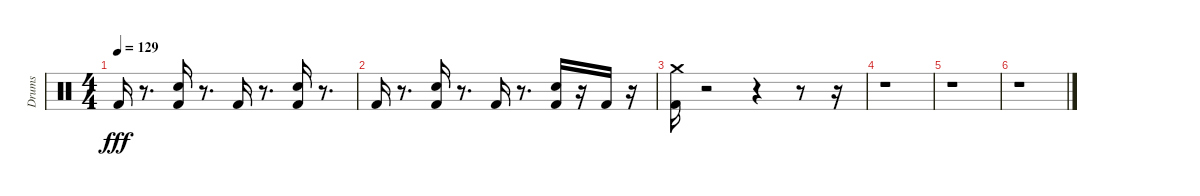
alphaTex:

\track ("Drums" "Drums") {instrument percussion}
\staff {score}
\articulation defaults
\ts (4 4)
\tempo 129
\clef neutral
\ks c "Kick (hit) 2".16{dy fff}
r.8{d} ("Kick (hit) 2" "Electric Snare (hit)").16 r.8{d} "Kick (hit) 2".16 r.8{d} ("Kick (hit) 2" "Electric Snare (hit)").16 r.8{d} |
"Kick (hit) 2".16 r.8{d} ("Kick (hit) 2" "Electric Snare (hit)").16 r.8{d} "Kick (hit) 2".16 r.8{d} ("Kick (hit) 2" "Electric Snare (hit)").16 r.16 "Kick (hit) 2".16 r.16 |
("Kick (hit) 2" "Crash medium (hit)").16 r.2 r.4 r.8 r.16 |
r.1 |
r.1 |
r.1
